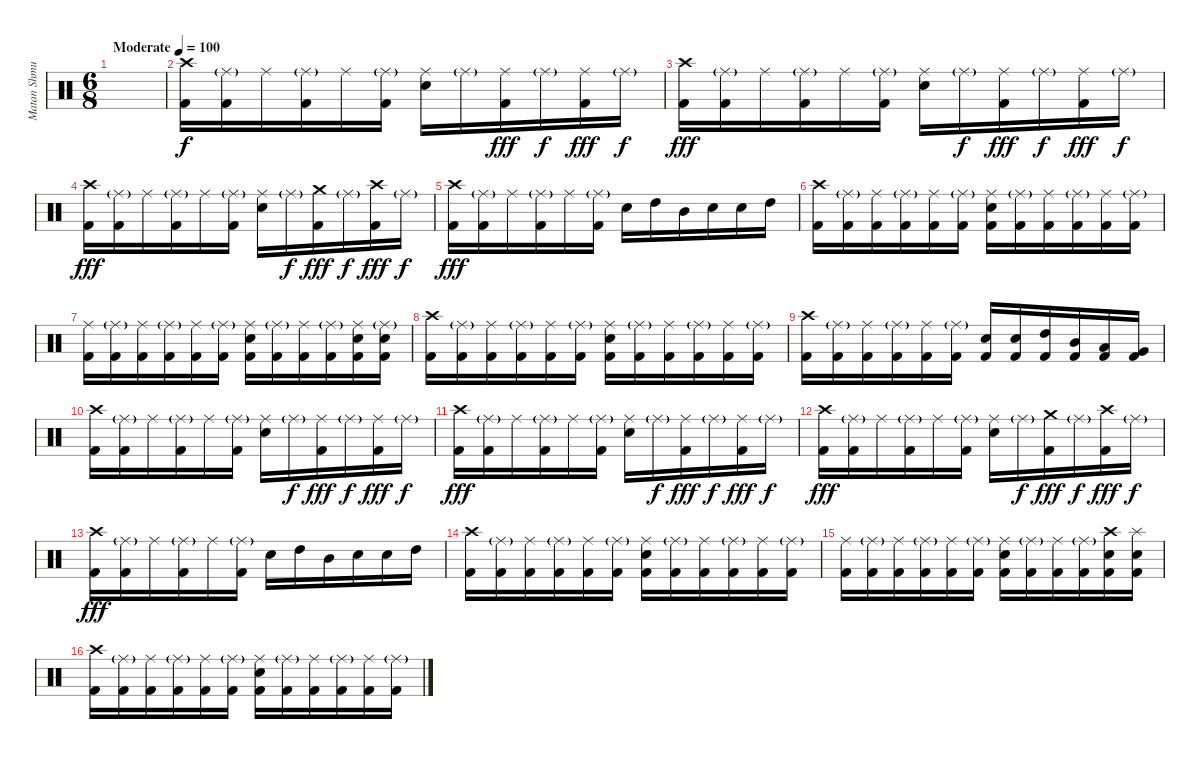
\track ("Matan Shmuely" "Matan Shmu") {instrument percussion}
\staff {score}
\articulation defaults
\ts (6 8)
\tempo (100 "Moderate")
\clef neutral
\ks c
|
("Kick (hit) 2" "Crash high (hit)").16 ("Kick (hit) 2" "Ride (middle)"{g}).16 "Ride (middle)".16 ("Kick (hit) 2" "Ride (middle)"{g}).16 "Ride (middle)".16 ("Kick (hit) 2" "Ride (middle)"{g}).16 ("Electric Snare (hit)" "Ride (middle)").16 "Ride (middle)"{g}.16{dy f} ("Kick (hit) 2" "Ride (middle)").16{dy fff} "Ride (middle)"{g}.16{dy f} ("Kick (hit) 2" "Ride (middle)").16{dy fff} "Ride (middle)"{g}.16{dy f} |
("Kick (hit) 2" "Crash high (hit)").16{dy fff} ("Kick (hit) 2" "Ride (middle)"{g}).16 "Ride (middle)".16 ("Kick (hit) 2" "Ride (middle)"{g}).16 "Ride (middle)".16 ("Kick (hit) 2" "Ride (middle)"{g}).16 ("Electric Snare (hit)" "Ride (middle)").16 "Ride (middle)"{g}.16{dy f} ("Kick (hit) 2" "Ride (middle)").16{dy fff} "Ride (middle)"{g}.16{dy f} ("Kick (hit) 2" "Ride (middle)").16{dy fff} "Ride (middle)"{g}.16{dy f} |
("Kick (hit) 2" "Crash high (hit)").16{dy fff} ("Kick (hit) 2" "Ride (middle)"{g}).16 "Ride (middle)".16 ("Kick (hit) 2" "Ride (middle)"{g}).16 "Ride (middle)".16 ("Kick (hit) 2" "Ride (middle)"{g}).16 ("Electric Snare (hit)" "Ride (middle)").16 "Ride (middle)"{g}.16{dy f} ("Kick (hit) 2" "Crash medium (hit)").16{dy fff} "Ride (middle)"{g}.16{dy f} ("Kick (hit) 2" "Crash high (hit)").16{dy fff} "Ride (middle)"{g}.16{dy f} |
("Kick (hit) 2" "Crash high (hit)").16{dy fff} ("Kick (hit) 2" "Ride (middle)"{g}).16 "Ride (middle)".16 ("Kick (hit) 2" "Ride (middle)"{g}).16 "Ride (middle)".16 ("Kick (hit) 2" "Ride (middle)"{g}).16 "Electric Snare (hit)".16 "High Tom (hit)".16 "Mid Tom (hit)".16 "Electric Snare (hit)".16 "Electric Snare (hit)".16 "High Tom (hit)".16 |
("Kick (hit) 2" "Crash high (hit)").16 ("Kick (hit) 2" "Ride (middle)"{g}).16 ("Kick (hit) 2" "Ride (middle)").16 ("Kick (hit) 2" "Ride (middle)"{g}).16 ("Kick (hit) 2" "Ride (middle)").16 ("Kick (hit) 2" "Ride (middle)"{g}).16 ("Kick (hit) 2" "Electric Snare (hit)" "Ride (middle)").16 ("Kick (hit) 2" "Ride (middle)"{g}).16 ("Kick (hit) 2" "Ride (middle)").16 ("Kick (hit) 2" "Ride (middle)"{g}).16 ("Kick (hit) 2" "Ride (middle)").16 ("Kick (hit) 2" "Ride (middle)"{g}).16 |
("Kick (hit) 2" "Ride (middle)").16 ("Kick (hit) 2" "Ride (middle)"{g}).16 ("Kick (hit) 2" "Ride (middle)").16 ("Kick (hit) 2" "Ride (middle)"{g}).16 ("Kick (hit) 2" "Ride (middle)").16 ("Kick (hit) 2" "Ride (middle)"{g}).16 ("Kick (hit) 2" "Electric Snare (hit)" "Ride (middle)").16 ("Kick (hit) 2" "Ride (middle)"{g}).16 ("Kick (hit) 2" "Ride (middle)").16 ("Kick (hit) 2" "Ride (middle)"{g}).16 ("Kick (hit) 2" "Electric Snare (hit)" "Ride (middle)").16 ("Kick (hit) 2" "Electric Snare (hit)" "Ride (middle)"{g}).16 |
("Kick (hit) 2" "Crash high (hit)").16 ("Kick (hit) 2" "Ride (middle)"{g}).16 ("Kick (hit) 2" "Ride (middle)").16 ("Kick (hit) 2" "Ride (middle)"{g}).16 ("Kick (hit) 2" "Ride (middle)").16 ("Kick (hit) 2" "Ride (middle)"{g}).16 ("Kick (hit) 2" "Electric Snare (hit)" "Ride (middle)").16 ("Kick (hit) 2" "Ride (middle)"{g}).16 ("Kick (hit) 2" "Ride (middle)").16 ("Kick (hit) 2" "Ride (middle)"{g}).16 ("Kick (hit) 2" "Ride (middle)").16 ("Kick (hit) 2" "Ride (middle)"{g}).16 |
("Kick (hit) 2" "Crash high (hit)").16 ("Kick (hit) 2" "Ride (middle)"{g}).16 ("Kick (hit) 2" "Ride (middle)").16 ("Kick (hit) 2" "Ride (middle)"{g}).16 ("Kick (hit) 2" "Ride (middle)").16 ("Kick (hit) 2" "Ride (middle)"{g}).16 ("Kick (hit) 2" "Electric Snare (hit)").16 ("Kick (hit) 2" "Electric Snare (hit)").16 ("Kick (hit) 2" "High Tom (hit)").16 ("Kick (hit) 2" "Mid Tom (hit)").16 ("Kick (hit) 2" "Low Tom (hit)").16 ("Kick (hit) 2" "Very Low Tom (hit)").16 |
("Kick (hit) 2" "Crash high (hit)").16 ("Kick (hit) 2" "Ride (middle)"{g}).16 "Ride (middle)".16 ("Kick (hit) 2" "Ride (middle)"{g}).16 "Ride (middle)".16 ("Kick (hit) 2" "Ride (middle)"{g}).16 ("Electric Snare (hit)" "Ride (middle)").16 "Ride (middle)"{g}.16{dy f} ("Kick (hit) 2" "Ride (middle)").16{dy fff} "Ride (middle)"{g}.16{dy f} ("Kick (hit) 2" "Ride (middle)").16{dy fff} "Ride (middle)"{g}.16{dy f} |
("Kick (hit) 2" "Crash high (hit)").16{dy fff} ("Kick (hit) 2" "Ride (middle)"{g}).16 "Ride (middle)".16 ("Kick (hit) 2" "Ride (middle)"{g}).16 "Ride (middle)".16 ("Kick (hit) 2" "Ride (middle)"{g}).16 ("Electric Snare (hit)" "Ride (middle)").16 "Ride (middle)"{g}.16{dy f} ("Kick (hit) 2" "Ride (middle)").16{dy fff} "Ride (middle)"{g}.16{dy f} ("Kick (hit) 2" "Ride (middle)").16{dy fff} "Ride (middle)"{g}.16{dy f} |
("Kick (hit) 2" "Crash high (hit)").16{dy fff} ("Kick (hit) 2" "Ride (middle)"{g}).16 "Ride (middle)".16 ("Kick (hit) 2" "Ride (middle)"{g}).16 "Ride (middle)".16 ("Kick (hit) 2" "Ride (middle)"{g}).16 ("Electric Snare (hit)" "Ride (middle)").16 "Ride (middle)"{g}.16{dy f} ("Kick (hit) 2" "Crash medium (hit)").16{dy fff} "Ride (middle)"{g}.16{dy f} ("Kick (hit) 2" "Crash high (hit)").16{dy fff} "Ride (middle)"{g}.16{dy f} |
("Kick (hit) 2" "Crash high (hit)").16{dy fff} ("Kick (hit) 2" "Ride (middle)"{g}).16 "Ride (middle)".16 ("Kick (hit) 2" "Ride (middle)"{g}).16 "Ride (middle)".16 ("Kick (hit) 2" "Ride (middle)"{g}).16 "Electric Snare (hit)".16 "High Tom (hit)".16 "Mid Tom (hit)".16 "Electric Snare (hit)".16 "Electric Snare (hit)".16 "High Tom (hit)".16 |
("Kick (hit) 2" "Crash high (hit)").16 ("Kick (hit) 2" "Ride (middle)"{g}).16 ("Kick (hit) 2" "Ride (middle)").16 ("Kick (hit) 2" "Ride (middle)"{g}).16 ("Kick (hit) 2" "Ride (middle)").16 ("Kick (hit) 2" "Ride (middle)"{g}).16 ("Kick (hit) 2" "Electric Snare (hit)" "Ride (middle)").16 ("Kick (hit) 2" "Ride (middle)"{g}).16 ("Kick (hit) 2" "Ride (middle)").16 ("Kick (hit) 2" "Ride (middle)"{g}).16 ("Kick (hit) 2" "Ride (middle)").16 ("Kick (hit) 2" "Ride (middle)"{g}).16 |
("Kick (hit) 2" "Ride (middle)").16 ("Kick (hit) 2" "Ride (middle)"{g}).16 ("Kick (hit) 2" "Ride (middle)").16 ("Kick (hit) 2" "Ride (middle)"{g}).16 ("Kick (hit) 2" "Ride (middle)").16 ("Kick (hit) 2" "Ride (middle)"{g}).16 ("Kick (hit) 2" "Electric Snare (hit)" "Ride (middle)").16 ("Kick (hit) 2" "Ride (middle)"{g}).16 ("Kick (hit) 2" "Ride (middle)").16 ("Kick (hit) 2" "Ride (middle)"{g}).16 ("Kick (hit) 2" "Electric Snare (hit)" "Crash high (hit)").16 ("Kick (hit) 2" "Electric Snare (hit)" "Splash (hit)").16 |
("Kick (hit) 2" "Crash high (hit)").16 ("Kick (hit) 2" "Ride (middle)"{g}).16 ("Kick (hit) 2" "Ride (middle)").16 ("Kick (hit) 2" "Ride (middle)"{g}).16 ("Kick (hit) 2" "Ride (middle)").16 ("Kick (hit) 2" "Ride (middle)"{g}).16 ("Kick (hit) 2" "Electric Snare (hit)" "Ride (middle)").16 ("Kick (hit) 2" "Ride (middle)"{g}).16 ("Kick (hit) 2" "Ride (middle)").16 ("Kick (hit) 2" "Ride (middle)"{g}).16 ("Kick (hit) 2" "Ride (middle)").16 ("Kick (hit) 2" "Ride (middle)"{g}).16
